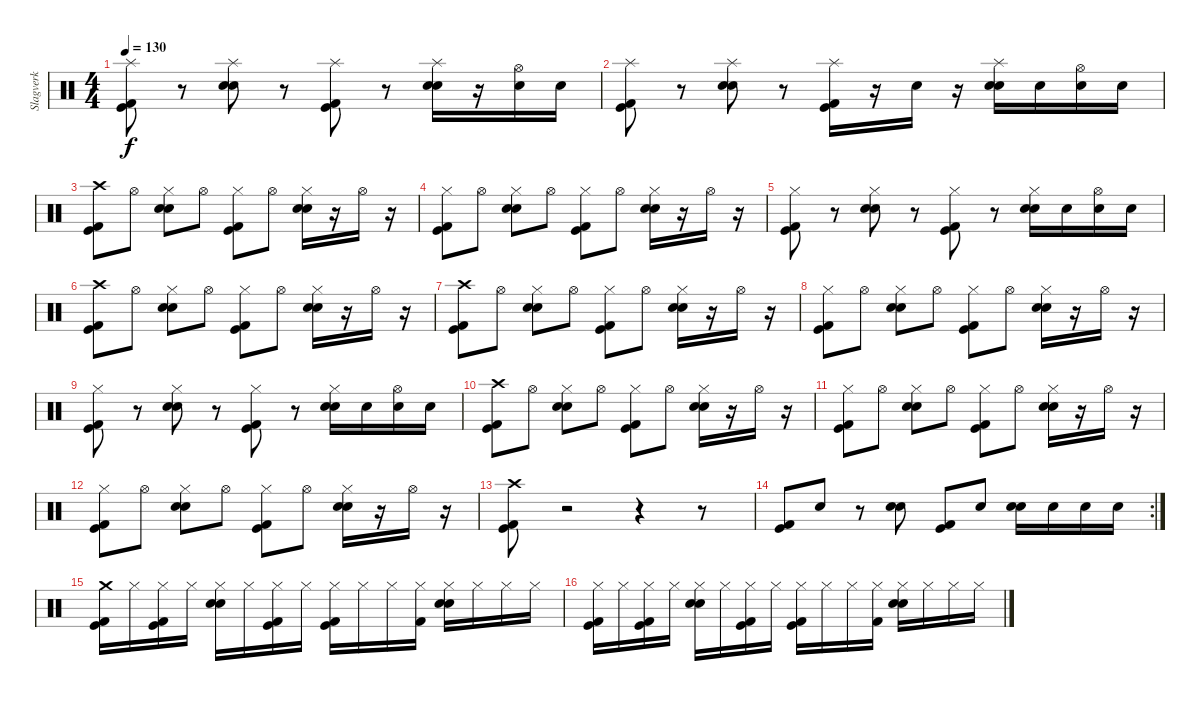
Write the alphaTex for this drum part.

\track ("Slagverk" "Slagverk") {instrument percussion}
\staff {score}
\articulation defaults
\ts (4 4)
\tempo 130
\clef neutral
\ks c
("Splash (hit)" "Kick (hit)" "Kick (hit) 2").8{dy f} r.8 ("Splash (hit)" "Electric Snare (hit)" "Snare (hit) 2").8 r.8 ("Splash (hit)" "Kick (hit)" "Kick (hit) 2").8 r.8 ("Splash (hit)" "Electric Snare (hit)" "Snare (hit) 2").16 r.16 ("Hi-Hat (open)" "Snare (hit) 2").16 "Snare (hit) 2".16 |
("Splash (hit)" "Kick (hit)" "Kick (hit) 2").8 r.8 ("Splash (hit)" "Electric Snare (hit)" "Snare (hit) 2").8 r.8 ("Splash (hit)" "Kick (hit)" "Kick (hit) 2").16 r.16 "Electric Snare (hit)".16 r.16 ("Splash (hit)" "Electric Snare (hit)" "Snare (hit) 2").16 "Electric Snare (hit)".16 ("Hi-Hat (open)" "Snare (hit) 2").16 "Snare (hit) 2".16 |
("Crash high (hit)" "Kick (hit)" "Kick (hit) 2").8 "Hi-Hat (open)".8 ("Hi-Hat (closed)" "Electric Snare (hit)" "Snare (hit) 2").8 "Hi-Hat (open)".8 ("Hi-Hat (closed)" "Kick (hit)" "Kick (hit) 2").8 "Hi-Hat (open)".8 ("Hi-Hat (closed)" "Electric Snare (hit)" "Snare (hit) 2").16 r.16 "Hi-Hat (open)".16 r.16 |
("Hi-Hat (closed)" "Kick (hit)" "Kick (hit) 2").8 "Hi-Hat (open)".8 ("Hi-Hat (closed)" "Electric Snare (hit)" "Snare (hit) 2").8 "Hi-Hat (open)".8 ("Hi-Hat (closed)" "Kick (hit)" "Kick (hit) 2").8 "Hi-Hat (open)".8 ("Hi-Hat (closed)" "Electric Snare (hit)" "Snare (hit) 2").16 r.16 "Hi-Hat (open)".16 r.16 |
("Hi-Hat (closed)" "Kick (hit)" "Kick (hit) 2").8 r.8 ("Hi-Hat (closed)" "Electric Snare (hit)" "Snare (hit) 2").8 r.8 ("Hi-Hat (closed)" "Kick (hit)" "Kick (hit) 2").8 r.8 ("Hi-Hat (closed)" "Electric Snare (hit)" "Snare (hit) 2").16 "Electric Snare (hit)".16 ("Hi-Hat (open)" "Electric Snare (hit)").16 "Electric Snare (hit)".16 |
("Crash high (hit)" "Kick (hit)" "Kick (hit) 2").8 "Hi-Hat (open)".8 ("Hi-Hat (closed)" "Electric Snare (hit)" "Snare (hit) 2").8 "Hi-Hat (open)".8 ("Hi-Hat (closed)" "Kick (hit)" "Kick (hit) 2").8 "Hi-Hat (open)".8 ("Hi-Hat (closed)" "Electric Snare (hit)" "Snare (hit) 2").16 r.16 "Hi-Hat (open)".16 r.16 |
("Crash high (hit)" "Kick (hit)" "Kick (hit) 2").8 "Hi-Hat (open)".8 ("Hi-Hat (closed)" "Electric Snare (hit)" "Snare (hit) 2").8 "Hi-Hat (open)".8 ("Hi-Hat (closed)" "Kick (hit)" "Kick (hit) 2").8 "Hi-Hat (open)".8 ("Hi-Hat (closed)" "Electric Snare (hit)" "Snare (hit) 2").16 r.16 "Hi-Hat (open)".16 r.16 |
("Hi-Hat (closed)" "Kick (hit)" "Kick (hit) 2").8 "Hi-Hat (open)".8 ("Hi-Hat (closed)" "Electric Snare (hit)" "Snare (hit) 2").8 "Hi-Hat (open)".8 ("Hi-Hat (closed)" "Kick (hit)" "Kick (hit) 2").8 "Hi-Hat (open)".8 ("Hi-Hat (closed)" "Electric Snare (hit)" "Snare (hit) 2").16 r.16 "Hi-Hat (open)".16 r.16 |
("Hi-Hat (closed)" "Kick (hit)" "Kick (hit) 2").8 r.8 ("Hi-Hat (closed)" "Electric Snare (hit)" "Snare (hit) 2").8 r.8 ("Hi-Hat (closed)" "Kick (hit)" "Kick (hit) 2").8 r.8 ("Hi-Hat (closed)" "Electric Snare (hit)" "Snare (hit) 2").16 "Electric Snare (hit)".16 ("Hi-Hat (open)" "Electric Snare (hit)").16 "Electric Snare (hit)".16 |
("Crash high (hit)" "Kick (hit)" "Kick (hit) 2").8 "Hi-Hat (open)".8 ("Hi-Hat (closed)" "Electric Snare (hit)" "Snare (hit) 2").8 "Hi-Hat (open)".8 ("Hi-Hat (closed)" "Kick (hit)" "Kick (hit) 2").8 "Hi-Hat (open)".8 ("Hi-Hat (closed)" "Electric Snare (hit)" "Snare (hit) 2").16 r.16 "Hi-Hat (open)".16 r.16 |
("Hi-Hat (closed)" "Kick (hit)" "Kick (hit) 2").8 "Hi-Hat (open)".8 ("Hi-Hat (closed)" "Electric Snare (hit)" "Snare (hit) 2").8 "Hi-Hat (open)".8 ("Hi-Hat (closed)" "Kick (hit)" "Kick (hit) 2").8 "Hi-Hat (open)".8 ("Hi-Hat (closed)" "Electric Snare (hit)" "Snare (hit) 2").16 r.16 "Hi-Hat (open)".16 r.16 |
("Hi-Hat (closed)" "Kick (hit)" "Kick (hit) 2").8 "Hi-Hat (open)".8 ("Hi-Hat (closed)" "Electric Snare (hit)" "Snare (hit) 2").8 "Hi-Hat (open)".8 ("Hi-Hat (closed)" "Kick (hit)" "Kick (hit) 2").8 "Hi-Hat (open)".8 ("Hi-Hat (closed)" "Electric Snare (hit)" "Snare (hit) 2").16 r.16 "Hi-Hat (open)".16 r.16 |
("Crash high (hit)" "Kick (hit)" "Kick (hit) 2").8 r.2 r.4 r.8 |
\rc 2
("Kick (hit)" "Kick (hit) 2").8 "Electric Snare (hit)".8 r.8 ("Electric Snare (hit)" "Snare (hit) 2").8 ("Kick (hit)" "Kick (hit) 2").8 "Electric Snare (hit)".8 ("Electric Snare (hit)" "Snare (hit) 2").16 "Electric Snare (hit)".16 "Electric Snare (hit)".16 "Electric Snare (hit)".16 |
("Crash medium (hit)" "Kick (hit)" "Kick (hit) 2").16 "Hi-Hat (closed)".16 ("Hi-Hat (closed)" "Kick (hit)" "Kick (hit) 2").16 "Hi-Hat (closed)".16 ("Hi-Hat (closed)" "Snare (hit) 2" "Electric Snare (hit)").16 "Hi-Hat (closed)".16 ("Hi-Hat (closed)" "Kick (hit) 2" "Kick (hit)").16 "Hi-Hat (closed)".16 ("Hi-Hat (closed)" "Kick (hit)" "Kick (hit) 2").16 "Hi-Hat (closed)".16 "Hi-Hat (closed)".16 ("Hi-Hat (closed)" "Kick (hit) 2").16 ("Hi-Hat (closed)" "Snare (hit) 2" "Electric Snare (hit)").16 "Hi-Hat (closed)".16 "Hi-Hat (closed)".16 "Hi-Hat (closed)".16 |
("Hi-Hat (closed)" "Kick (hit)" "Kick (hit) 2").16 "Hi-Hat (closed)".16 ("Hi-Hat (closed)" "Kick (hit)" "Kick (hit) 2").16 "Hi-Hat (closed)".16 ("Hi-Hat (closed)" "Snare (hit) 2" "Electric Snare (hit)").16 "Hi-Hat (closed)".16 ("Hi-Hat (closed)" "Kick (hit) 2" "Kick (hit)").16 "Hi-Hat (closed)".16 ("Hi-Hat (closed)" "Kick (hit)" "Kick (hit) 2").16 "Hi-Hat (closed)".16 "Hi-Hat (closed)".16 ("Hi-Hat (closed)" "Kick (hit) 2").16 ("Hi-Hat (closed)" "Snare (hit) 2" "Electric Snare (hit)").16 "Hi-Hat (closed)".16 "Hi-Hat (closed)".16 "Hi-Hat (closed)".16
